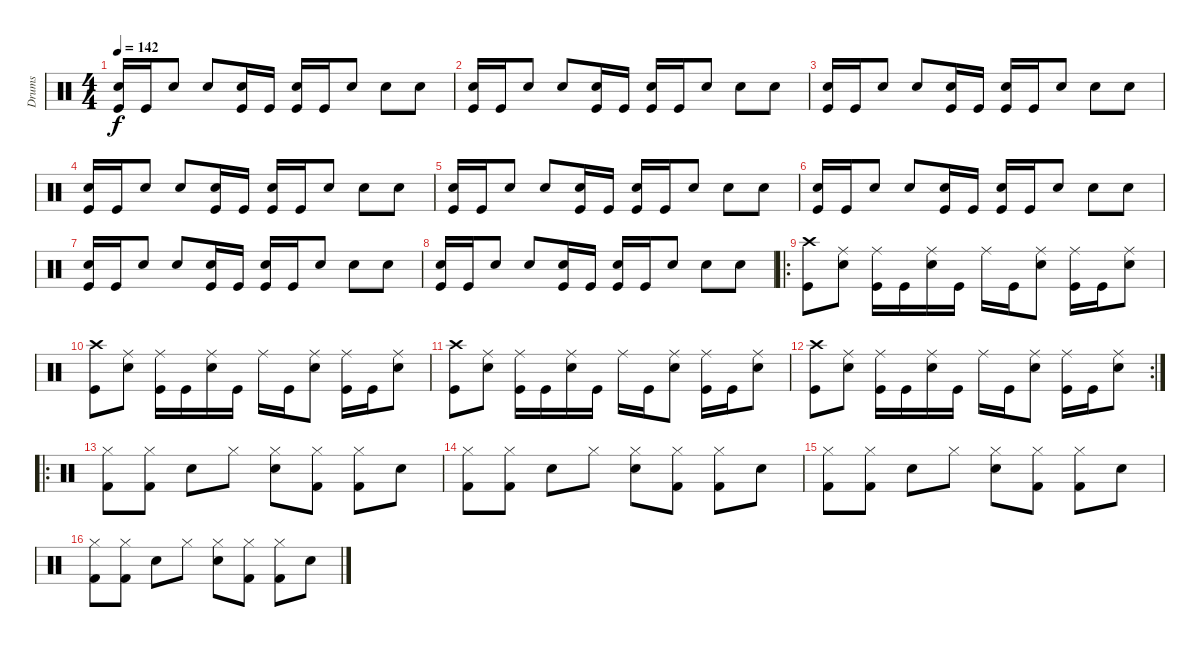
\track ("Drums" "Drums") {instrument percussion}
\staff {score}
\articulation defaults
\ts (4 4)
\tempo 142
\clef neutral
\ks c
("Electric Snare (hit)" "Kick (hit)").16{dy f} "Kick (hit)".16 "Electric Snare (hit)".8 "Electric Snare (hit)".8 ("Electric Snare (hit)" "Kick (hit)").16 "Kick (hit)".16 ("Electric Snare (hit)" "Kick (hit)").16 "Kick (hit)".16 "Electric Snare (hit)".8 "Electric Snare (hit)".8 "Electric Snare (hit)".8 |
("Electric Snare (hit)" "Kick (hit)").16 "Kick (hit)".16 "Electric Snare (hit)".8 "Electric Snare (hit)".8 ("Electric Snare (hit)" "Kick (hit)").16 "Kick (hit)".16 ("Electric Snare (hit)" "Kick (hit)").16 "Kick (hit)".16 "Electric Snare (hit)".8 "Electric Snare (hit)".8 "Electric Snare (hit)".8 |
("Electric Snare (hit)" "Kick (hit)").16 "Kick (hit)".16 "Electric Snare (hit)".8 "Electric Snare (hit)".8 ("Electric Snare (hit)" "Kick (hit)").16 "Kick (hit)".16 ("Electric Snare (hit)" "Kick (hit)").16 "Kick (hit)".16 "Electric Snare (hit)".8 "Electric Snare (hit)".8 "Electric Snare (hit)".8 |
("Electric Snare (hit)" "Kick (hit)").16 "Kick (hit)".16 "Electric Snare (hit)".8 "Electric Snare (hit)".8 ("Electric Snare (hit)" "Kick (hit)").16 "Kick (hit)".16 ("Electric Snare (hit)" "Kick (hit)").16 "Kick (hit)".16 "Electric Snare (hit)".8 "Electric Snare (hit)".8 "Electric Snare (hit)".8 |
("Electric Snare (hit)" "Kick (hit)").16 "Kick (hit)".16 "Electric Snare (hit)".8 "Electric Snare (hit)".8 ("Electric Snare (hit)" "Kick (hit)").16 "Kick (hit)".16 ("Electric Snare (hit)" "Kick (hit)").16 "Kick (hit)".16 "Electric Snare (hit)".8 "Electric Snare (hit)".8 "Electric Snare (hit)".8 |
("Electric Snare (hit)" "Kick (hit)").16 "Kick (hit)".16 "Electric Snare (hit)".8 "Electric Snare (hit)".8 ("Electric Snare (hit)" "Kick (hit)").16 "Kick (hit)".16 ("Electric Snare (hit)" "Kick (hit)").16 "Kick (hit)".16 "Electric Snare (hit)".8 "Electric Snare (hit)".8 "Electric Snare (hit)".8 |
("Electric Snare (hit)" "Kick (hit)").16 "Kick (hit)".16 "Electric Snare (hit)".8 "Electric Snare (hit)".8 ("Electric Snare (hit)" "Kick (hit)").16 "Kick (hit)".16 ("Electric Snare (hit)" "Kick (hit)").16 "Kick (hit)".16 "Electric Snare (hit)".8 "Electric Snare (hit)".8 "Electric Snare (hit)".8 |
("Electric Snare (hit)" "Kick (hit)").16 "Kick (hit)".16 "Electric Snare (hit)".8 "Electric Snare (hit)".8 ("Electric Snare (hit)" "Kick (hit)").16 "Kick (hit)".16 ("Electric Snare (hit)" "Kick (hit)").16 "Kick (hit)".16 "Electric Snare (hit)".8 "Electric Snare (hit)".8 "Electric Snare (hit)".8 |
\ro
("Crash high (hit)" "Kick (hit)").8 ("Ride (middle)" "Electric Snare (hit)").8 ("Ride (middle)" "Kick (hit)").16 "Kick (hit)".16 ("Ride (middle)" "Electric Snare (hit)").16 "Kick (hit)".16 "Ride (middle)".16 "Kick (hit)".16 ("Ride (middle)" "Electric Snare (hit)").8 ("Ride (middle)" "Kick (hit)").16 "Kick (hit)".16 ("Ride (middle)" "Snare (hit) 2").8 |
("Crash high (hit)" "Kick (hit)").8 ("Ride (middle)" "Electric Snare (hit)").8 ("Ride (middle)" "Kick (hit)").16 "Kick (hit)".16 ("Ride (middle)" "Electric Snare (hit)").16 "Kick (hit)".16 "Ride (middle)".16 "Kick (hit)".16 ("Ride (middle)" "Electric Snare (hit)").8 ("Ride (middle)" "Kick (hit)").16 "Kick (hit)".16 ("Ride (middle)" "Snare (hit) 2").8 |
("Crash high (hit)" "Kick (hit)").8 ("Ride (middle)" "Electric Snare (hit)").8 ("Ride (middle)" "Kick (hit)").16 "Kick (hit)".16 ("Ride (middle)" "Electric Snare (hit)").16 "Kick (hit)".16 "Ride (middle)".16 "Kick (hit)".16 ("Ride (middle)" "Electric Snare (hit)").8 ("Ride (middle)" "Kick (hit)").16 "Kick (hit)".16 ("Ride (middle)" "Snare (hit) 2").8 |
\rc 2
("Crash high (hit)" "Kick (hit)").8 ("Ride (middle)" "Electric Snare (hit)").8 ("Ride (middle)" "Kick (hit)").16 "Kick (hit)".16 ("Ride (middle)" "Electric Snare (hit)").16 "Kick (hit)".16 "Ride (middle)".16 "Kick (hit)".16 ("Ride (middle)" "Electric Snare (hit)").8 ("Ride (middle)" "Kick (hit)").16 "Kick (hit)".16 ("Ride (middle)" "Snare (hit) 2").8 |
\ro
("Hi-Hat (closed)" "Kick (hit) 2").8 ("Hi-Hat (closed)" "Kick (hit) 2").8 "Electric Snare (hit)".8 "Hi-Hat (closed)".8 ("Hi-Hat (closed)" "Electric Snare (hit)").8 ("Hi-Hat (closed)" "Kick (hit) 2").8 ("Hi-Hat (closed)" "Kick (hit) 2").8 "Electric Snare (hit)".8 |
("Hi-Hat (closed)" "Kick (hit) 2").8 ("Hi-Hat (closed)" "Kick (hit) 2").8 "Electric Snare (hit)".8 "Hi-Hat (closed)".8 ("Hi-Hat (closed)" "Electric Snare (hit)").8 ("Hi-Hat (closed)" "Kick (hit) 2").8 ("Hi-Hat (closed)" "Kick (hit) 2").8 "Electric Snare (hit)".8 |
("Hi-Hat (closed)" "Kick (hit) 2").8 ("Hi-Hat (closed)" "Kick (hit) 2").8 "Electric Snare (hit)".8 "Hi-Hat (closed)".8 ("Hi-Hat (closed)" "Electric Snare (hit)").8 ("Hi-Hat (closed)" "Kick (hit) 2").8 ("Hi-Hat (closed)" "Kick (hit) 2").8 "Electric Snare (hit)".8 |
("Hi-Hat (closed)" "Kick (hit) 2").8 ("Hi-Hat (closed)" "Kick (hit) 2").8 "Electric Snare (hit)".8 "Hi-Hat (closed)".8 ("Hi-Hat (closed)" "Electric Snare (hit)").8 ("Hi-Hat (closed)" "Kick (hit) 2").8 ("Hi-Hat (closed)" "Kick (hit) 2").8 "Electric Snare (hit)".8
